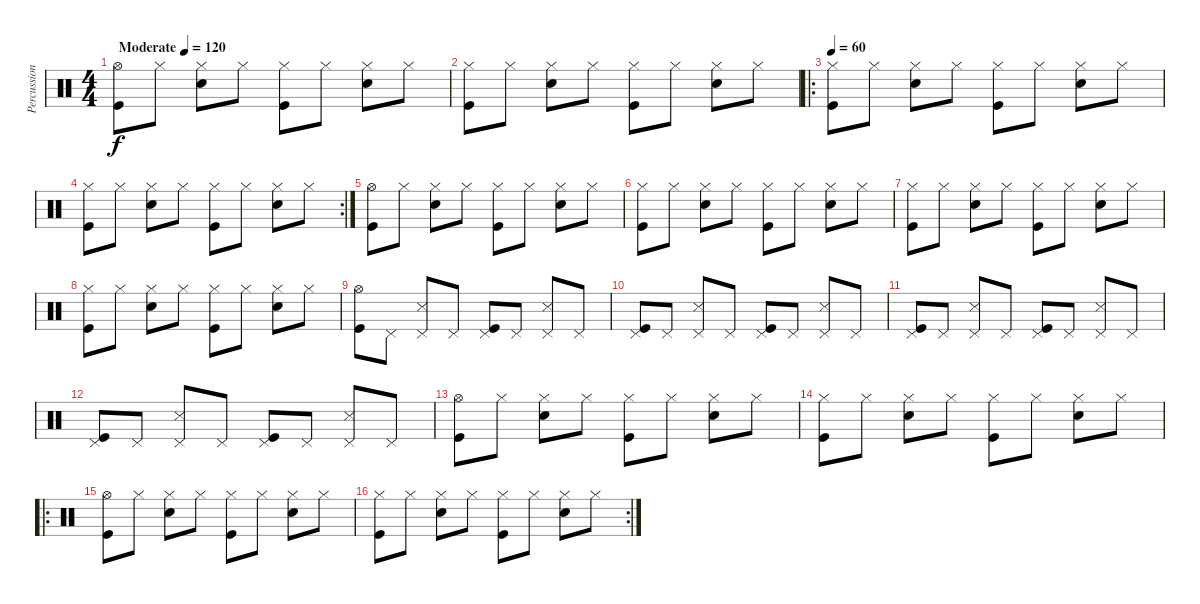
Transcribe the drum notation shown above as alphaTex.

\track ("Percussion" "Percussion") {instrument percussion}
\staff {score}
\articulation defaults
\ts (4 4)
\tempo (120 "Moderate")
\tempo 60
\tempo (120 "Moderate")
\clef neutral
\ks c
("Hi-Hat (open)" "Kick (hit)").8{dy f} "Hi-Hat (closed)".8 ("Hi-Hat (closed)" "Electric Snare (hit)").8 "Hi-Hat (closed)".8 ("Hi-Hat (closed)" "Kick (hit)").8 "Hi-Hat (closed)".8 ("Hi-Hat (closed)" "Electric Snare (hit)").8 "Hi-Hat (closed)".8 |
("Hi-Hat (closed)" "Kick (hit)").8 "Hi-Hat (closed)".8 ("Hi-Hat (closed)" "Electric Snare (hit)").8 "Hi-Hat (closed)".8 ("Hi-Hat (closed)" "Kick (hit)").8 "Hi-Hat (closed)".8 ("Hi-Hat (closed)" "Electric Snare (hit)").8 "Hi-Hat (closed)".8 |
\ro
\tempo 120
\tempo 60
("Hi-Hat (closed)" "Kick (hit)").8 "Hi-Hat (closed)".8 ("Hi-Hat (closed)" "Electric Snare (hit)").8 "Hi-Hat (closed)".8 ("Hi-Hat (closed)" "Kick (hit)").8 "Hi-Hat (closed)".8 ("Hi-Hat (closed)" "Electric Snare (hit)").8 "Hi-Hat (closed)".8 |
\rc 2
("Hi-Hat (closed)" "Kick (hit)").8 "Hi-Hat (closed)".8 ("Hi-Hat (closed)" "Electric Snare (hit)").8 "Hi-Hat (closed)".8 ("Hi-Hat (closed)" "Kick (hit)").8 "Hi-Hat (closed)".8 ("Hi-Hat (closed)" "Electric Snare (hit)").8 "Hi-Hat (closed)".8 |
("Hi-Hat (open)" "Kick (hit)").8 "Hi-Hat (closed)".8 ("Hi-Hat (closed)" "Electric Snare (hit)").8 "Hi-Hat (closed)".8 ("Hi-Hat (closed)" "Kick (hit)").8 "Hi-Hat (closed)".8 ("Hi-Hat (closed)" "Electric Snare (hit)").8 "Hi-Hat (closed)".8 |
("Hi-Hat (closed)" "Kick (hit)").8 "Hi-Hat (closed)".8 ("Hi-Hat (closed)" "Electric Snare (hit)").8 "Hi-Hat (closed)".8 ("Hi-Hat (closed)" "Kick (hit)").8 "Hi-Hat (closed)".8 ("Hi-Hat (closed)" "Electric Snare (hit)").8 "Hi-Hat (closed)".8 |
("Hi-Hat (closed)" "Kick (hit)").8 "Hi-Hat (closed)".8 ("Hi-Hat (closed)" "Electric Snare (hit)").8 "Hi-Hat (closed)".8 ("Hi-Hat (closed)" "Kick (hit)").8 "Hi-Hat (closed)".8 ("Hi-Hat (closed)" "Electric Snare (hit)").8 "Hi-Hat (closed)".8 |
("Hi-Hat (closed)" "Kick (hit)").8 "Hi-Hat (closed)".8 ("Hi-Hat (closed)" "Electric Snare (hit)").8 "Hi-Hat (closed)".8 ("Hi-Hat (closed)" "Kick (hit)").8 "Hi-Hat (closed)".8 ("Hi-Hat (closed)" "Electric Snare (hit)").8 "Hi-Hat (closed)".8 |
("Hi-Hat (open)" "Kick (hit)").8 "Pedal Hi-Hat (hit)".8 ("Pedal Hi-Hat (hit)" "Snare (side stick) 3").8 "Pedal Hi-Hat (hit)".8 ("Pedal Hi-Hat (hit)" "Kick (hit)").8 "Pedal Hi-Hat (hit)".8 ("Pedal Hi-Hat (hit)" "Snare (side stick) 3").8 "Pedal Hi-Hat (hit)".8 |
("Pedal Hi-Hat (hit)" "Kick (hit)").8 "Pedal Hi-Hat (hit)".8 ("Pedal Hi-Hat (hit)" "Snare (side stick) 3").8 "Pedal Hi-Hat (hit)".8 ("Pedal Hi-Hat (hit)" "Kick (hit)").8 "Pedal Hi-Hat (hit)".8 ("Pedal Hi-Hat (hit)" "Snare (side stick) 3").8 "Pedal Hi-Hat (hit)".8 |
("Pedal Hi-Hat (hit)" "Kick (hit)").8 "Pedal Hi-Hat (hit)".8 ("Pedal Hi-Hat (hit)" "Snare (side stick) 3").8 "Pedal Hi-Hat (hit)".8 ("Pedal Hi-Hat (hit)" "Kick (hit)").8 "Pedal Hi-Hat (hit)".8 ("Pedal Hi-Hat (hit)" "Snare (side stick) 3").8 "Pedal Hi-Hat (hit)".8 |
("Pedal Hi-Hat (hit)" "Kick (hit)").8 "Pedal Hi-Hat (hit)".8 ("Pedal Hi-Hat (hit)" "Snare (side stick) 3").8 "Pedal Hi-Hat (hit)".8 ("Pedal Hi-Hat (hit)" "Kick (hit)").8 "Pedal Hi-Hat (hit)".8 ("Pedal Hi-Hat (hit)" "Snare (side stick) 3").8 "Pedal Hi-Hat (hit)".8 |
("Hi-Hat (open)" "Kick (hit)").8 "Hi-Hat (closed)".8 ("Hi-Hat (closed)" "Electric Snare (hit)").8 "Hi-Hat (closed)".8 ("Hi-Hat (closed)" "Kick (hit)").8 "Hi-Hat (closed)".8 ("Hi-Hat (closed)" "Electric Snare (hit)").8 "Hi-Hat (closed)".8 |
("Hi-Hat (closed)" "Kick (hit)").8 "Hi-Hat (closed)".8 ("Hi-Hat (closed)" "Electric Snare (hit)").8 "Hi-Hat (closed)".8 ("Hi-Hat (closed)" "Kick (hit)").8 "Hi-Hat (closed)".8 ("Hi-Hat (closed)" "Electric Snare (hit)").8 "Hi-Hat (closed)".8 |
\ro
("Hi-Hat (open)" "Kick (hit)").8 "Hi-Hat (closed)".8 ("Hi-Hat (closed)" "Electric Snare (hit)").8 "Hi-Hat (closed)".8 ("Hi-Hat (closed)" "Kick (hit)").8 "Hi-Hat (closed)".8 ("Hi-Hat (closed)" "Electric Snare (hit)").8 "Hi-Hat (closed)".8 |
\rc 2
("Hi-Hat (closed)" "Kick (hit)").8 "Hi-Hat (closed)".8 ("Hi-Hat (closed)" "Electric Snare (hit)").8 "Hi-Hat (closed)".8 ("Hi-Hat (closed)" "Kick (hit)").8 "Hi-Hat (closed)".8 ("Hi-Hat (closed)" "Electric Snare (hit)").8 "Hi-Hat (closed)".8
